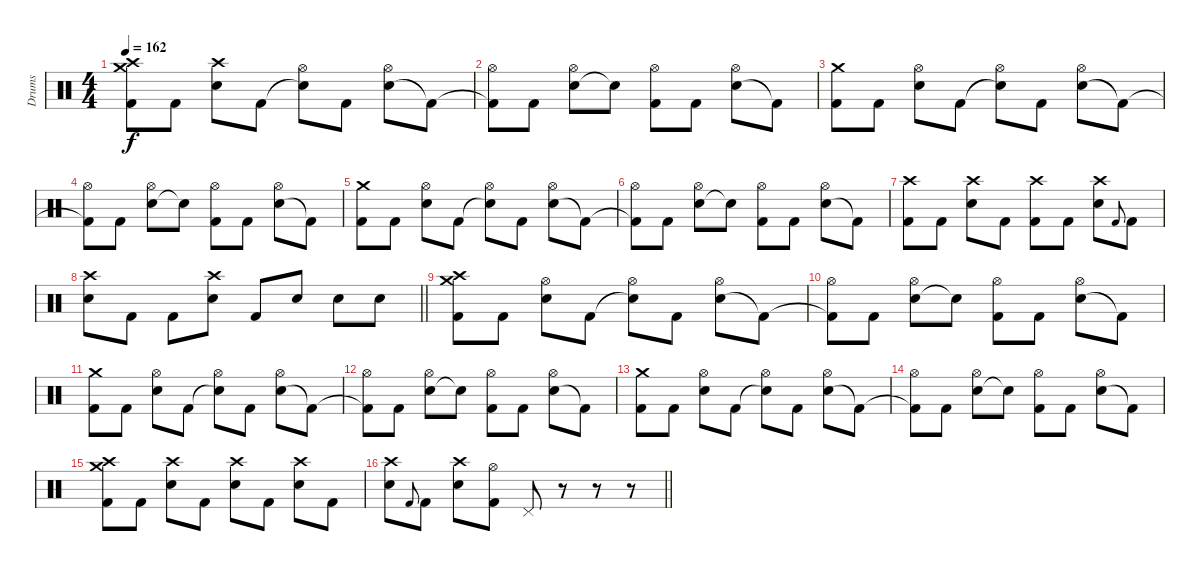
\track ("Drums" "Drums") {instrument percussion}
\staff {score}
\articulation defaults
\ts (4 4)
\tempo 162
\clef neutral
\ks c
("Kick (hit) 2" "Crash medium (hit)" "Crash high (hit)").8{dy f} "Kick (hit) 2".8 ("Electric Snare (hit)" "Crash high (hit)").8 "Kick (hit) 2".8 ("Snare (hit)"{t} "Hi-Hat (open)").8 "Kick (hit) 2".8 ("Electric Snare (hit)" "Hi-Hat (open)").8 "Kick (hit) 2"{t}.8 |
("Kick (hit) 2"{t} "Hi-Hat (open)").8 "Kick (hit) 2".8 ("Electric Snare (hit)" "Hi-Hat (open)").8 "Snare (hit)"{t}.8 ("Kick (hit) 2" "Hi-Hat (open)").8 "Kick (hit) 2".8 ("Electric Snare (hit)" "Hi-Hat (open)").8 "Kick (hit) 2"{t}.8 |
("Kick (hit) 2" "Crash medium (hit)").8 "Kick (hit) 2".8 ("Electric Snare (hit)" "Hi-Hat (open)").8 "Kick (hit) 2".8 ("Snare (hit)"{t} "Hi-Hat (open)").8 "Kick (hit) 2".8 ("Electric Snare (hit)" "Hi-Hat (open)").8 "Kick (hit) 2"{t}.8 |
("Kick (hit) 2"{t} "Hi-Hat (open)").8 "Kick (hit) 2".8 ("Electric Snare (hit)" "Hi-Hat (open)").8 "Snare (hit)"{t}.8 ("Kick (hit) 2" "Hi-Hat (open)").8 "Kick (hit) 2".8 ("Electric Snare (hit)" "Hi-Hat (open)").8 "Kick (hit) 2"{t}.8 |
("Kick (hit) 2" "Crash medium (hit)").8 "Kick (hit) 2".8 ("Electric Snare (hit)" "Hi-Hat (open)").8 "Kick (hit) 2".8 ("Snare (hit)"{t} "Hi-Hat (open)").8 "Kick (hit) 2".8 ("Electric Snare (hit)" "Hi-Hat (open)").8 "Kick (hit) 2"{t}.8 |
("Kick (hit) 2"{t} "Hi-Hat (open)").8 "Kick (hit) 2".8 ("Electric Snare (hit)" "Hi-Hat (open)").8 "Snare (hit)"{t}.8 ("Kick (hit) 2" "Hi-Hat (open)").8 "Kick (hit) 2".8 ("Electric Snare (hit)" "Hi-Hat (open)").8 "Kick (hit) 2"{t}.8 |
("Kick (hit) 2" "Crash high (hit)").8 "Kick (hit) 2".8 ("Electric Snare (hit)" "Crash high (hit)").8 "Kick (hit) 2".8 ("Kick (hit) 2" "Crash high (hit)").8 "Kick (hit) 2".8 ("Electric Snare (hit)" "Crash high (hit)").8 "Kick (hit) 2".8{gr onbeat} "Kick (hit) 2".8 |
\barLineRight lightlight
("Electric Snare (hit)" "Crash high (hit)").8 "Kick (hit) 2".8 "Kick (hit) 2".8 ("Electric Snare (hit)" "Crash high (hit)").8 "Kick (hit) 2".8 "Electric Snare (hit)".8 "Electric Snare (hit)".8 "Electric Snare (hit)".8 |
("Kick (hit) 2" "Crash medium (hit)" "Crash high (hit)").8 "Kick (hit) 2".8 ("Electric Snare (hit)" "Hi-Hat (open)").8 "Kick (hit) 2".8 ("Snare (hit)"{t} "Hi-Hat (open)").8 "Kick (hit) 2".8 ("Electric Snare (hit)" "Hi-Hat (open)").8 "Kick (hit) 2"{t}.8 |
("Kick (hit) 2"{t} "Hi-Hat (open)").8 "Kick (hit) 2".8 ("Electric Snare (hit)" "Hi-Hat (open)").8 "Snare (hit)"{t}.8 ("Kick (hit) 2" "Hi-Hat (open)").8 "Kick (hit) 2".8 ("Electric Snare (hit)" "Hi-Hat (open)").8 "Kick (hit) 2"{t}.8 |
("Kick (hit) 2" "Crash medium (hit)").8 "Kick (hit) 2".8 ("Electric Snare (hit)" "Hi-Hat (open)").8 "Kick (hit) 2".8 ("Snare (hit)"{t} "Hi-Hat (open)").8 "Kick (hit) 2".8 ("Electric Snare (hit)" "Hi-Hat (open)").8 "Kick (hit) 2"{t}.8 |
("Kick (hit) 2"{t} "Hi-Hat (open)").8 "Kick (hit) 2".8 ("Electric Snare (hit)" "Hi-Hat (open)").8 "Snare (hit)"{t}.8 ("Kick (hit) 2" "Hi-Hat (open)").8 "Kick (hit) 2".8 ("Electric Snare (hit)" "Hi-Hat (open)").8 "Kick (hit) 2"{t}.8 |
("Kick (hit) 2" "Crash medium (hit)").8 "Kick (hit) 2".8 ("Electric Snare (hit)" "Hi-Hat (open)").8 "Kick (hit) 2".8 ("Snare (hit)"{t} "Hi-Hat (open)").8 "Kick (hit) 2".8 ("Electric Snare (hit)" "Hi-Hat (open)").8 "Kick (hit) 2"{t}.8 |
("Kick (hit) 2"{t} "Hi-Hat (open)").8 "Kick (hit) 2".8 ("Electric Snare (hit)" "Hi-Hat (open)").8 "Snare (hit)"{t}.8 ("Kick (hit) 2" "Hi-Hat (open)").8 "Kick (hit) 2".8 ("Electric Snare (hit)" "Hi-Hat (open)").8 "Kick (hit) 2"{t}.8 |
("Kick (hit) 2" "Crash medium (hit)" "Crash high (hit)").8 "Kick (hit) 2".8 ("Electric Snare (hit)" "Crash high (hit)").8 "Kick (hit) 2".8 ("Electric Snare (hit)" "Crash high (hit)").8 "Kick (hit) 2".8 ("Electric Snare (hit)" "Crash high (hit)").8 "Kick (hit) 2".8 |
\barLineRight lightlight
("Electric Snare (hit)" "Crash high (hit)").8 "Kick (hit) 2".8{gr onbeat} "Kick (hit) 2".8 ("Electric Snare (hit)" "Crash high (hit)").8 ("Kick (hit) 2" "Hi-Hat (open)").8 "Pedal Hi-Hat (hit)".8 r.8 r.8 r.8
